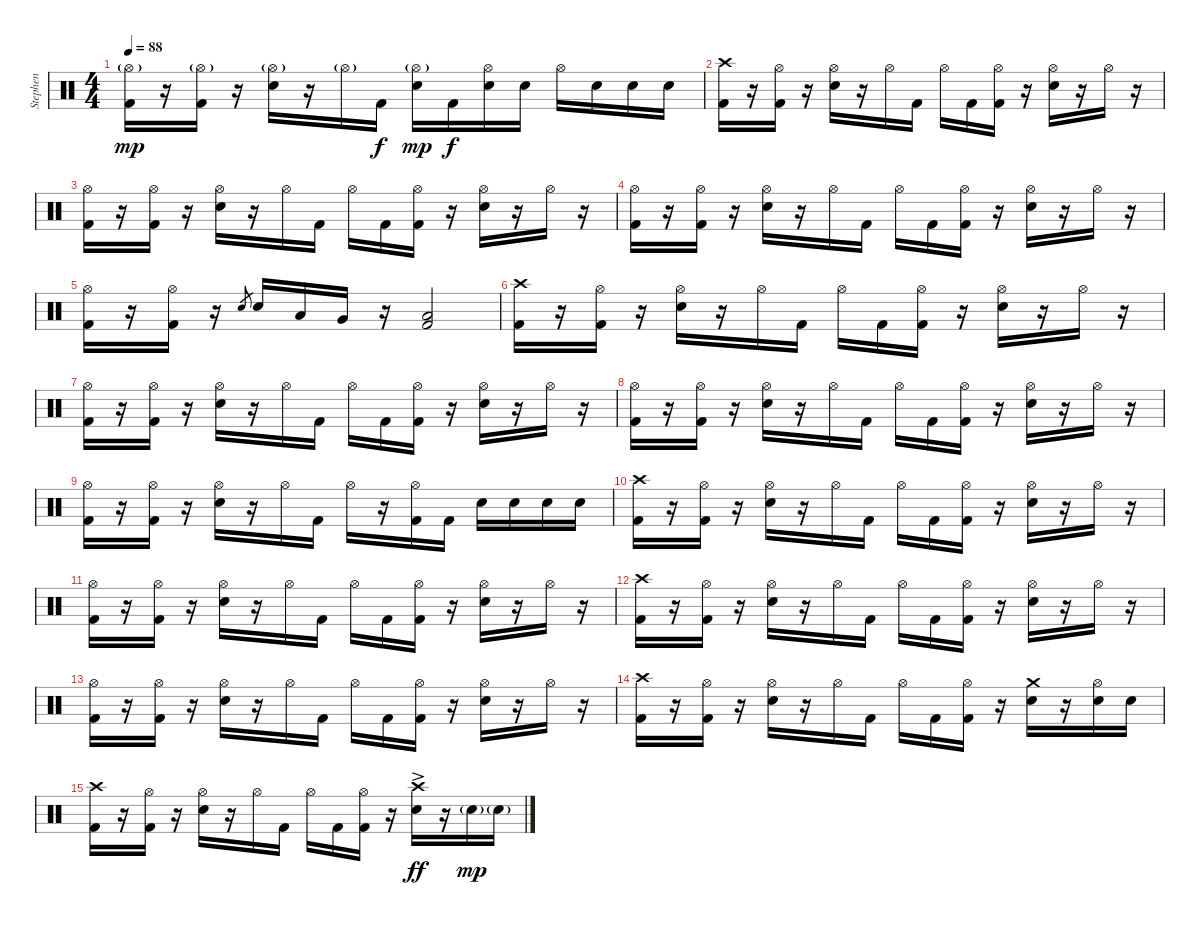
\track ("Stephen" "Stephen") {instrument percussion}
\staff {score}
\articulation defaults
\ts (4 4)
\tempo 88
\clef neutral
\ks c
("Hi-Hat (open)"{g} "Kick (hit) 2").16{dy mp} r.16 ("Hi-Hat (open)"{g} "Kick (hit) 2").16 r.16 ("Hi-Hat (open)"{g} "Electric Snare (hit)").16 r.16 "Hi-Hat (open)"{g}.16 "Kick (hit) 2".16{dy f} ("Hi-Hat (open)"{g} "Electric Snare (hit)").16{dy mp} "Kick (hit) 2".16{dy f} ("Hi-Hat (open)" "Electric Snare (hit)").16 "Electric Snare (hit)".16 "Hi-Hat (open)".16 "Electric Snare (hit)".16 "Electric Snare (hit)".16 "Electric Snare (hit)".16 |
("Crash high (hit)" "Kick (hit) 2").16 r.16 ("Hi-Hat (open)" "Kick (hit) 2").16 r.16 ("Hi-Hat (open)" "Electric Snare (hit)").16 r.16 "Hi-Hat (open)".16 "Kick (hit) 2".16 "Hi-Hat (open)".16 "Kick (hit) 2".16 ("Hi-Hat (open)" "Kick (hit) 2").16 r.16 ("Hi-Hat (open)" "Electric Snare (hit)").16 r.16 "Hi-Hat (open)".16 r.16 |
("Hi-Hat (open)" "Kick (hit) 2").16 r.16 ("Hi-Hat (open)" "Kick (hit) 2").16 r.16 ("Hi-Hat (open)" "Electric Snare (hit)").16 r.16 "Hi-Hat (open)".16 "Kick (hit) 2".16 "Hi-Hat (open)".16 "Kick (hit) 2".16 ("Hi-Hat (open)" "Kick (hit) 2").16 r.16 ("Hi-Hat (open)" "Electric Snare (hit)").16 r.16 "Hi-Hat (open)".16 r.16 |
("Hi-Hat (open)" "Kick (hit) 2").16 r.16 ("Hi-Hat (open)" "Kick (hit) 2").16 r.16 ("Hi-Hat (open)" "Electric Snare (hit)").16 r.16 "Hi-Hat (open)".16 "Kick (hit) 2".16 "Hi-Hat (open)".16 "Kick (hit) 2".16 ("Hi-Hat (open)" "Kick (hit) 2").16 r.16 ("Hi-Hat (open)" "Electric Snare (hit)").16 r.16 "Hi-Hat (open)".16 r.16 |
("Hi-Hat (open)" "Kick (hit) 2").16 r.16 ("Hi-Hat (open)" "Kick (hit) 2").16 r.16 "Electric Snare (hit)".8{gr} "Electric Snare (hit)".16 "Low Tom (hit)".16 "Very Low Tom (hit)".16 r.16 ("Low Floor Tom (hit)" "Kick (hit) 2").2 |
("Crash high (hit)" "Kick (hit) 2").16 r.16 ("Hi-Hat (open)" "Kick (hit) 2").16 r.16 ("Hi-Hat (open)" "Electric Snare (hit)").16 r.16 "Hi-Hat (open)".16 "Kick (hit) 2".16 "Hi-Hat (open)".16 "Kick (hit) 2".16 ("Hi-Hat (open)" "Kick (hit) 2").16 r.16 ("Hi-Hat (open)" "Electric Snare (hit)").16 r.16 "Hi-Hat (open)".16 r.16 |
("Hi-Hat (open)" "Kick (hit) 2").16 r.16 ("Hi-Hat (open)" "Kick (hit) 2").16 r.16 ("Hi-Hat (open)" "Electric Snare (hit)").16 r.16 "Hi-Hat (open)".16 "Kick (hit) 2".16 "Hi-Hat (open)".16 "Kick (hit) 2".16 ("Hi-Hat (open)" "Kick (hit) 2").16 r.16 ("Hi-Hat (open)" "Electric Snare (hit)").16 r.16 "Hi-Hat (open)".16 r.16 |
("Hi-Hat (open)" "Kick (hit) 2").16 r.16 ("Hi-Hat (open)" "Kick (hit) 2").16 r.16 ("Hi-Hat (open)" "Electric Snare (hit)").16 r.16 "Hi-Hat (open)".16 "Kick (hit) 2".16 "Hi-Hat (open)".16 "Kick (hit) 2".16 ("Hi-Hat (open)" "Kick (hit) 2").16 r.16 ("Hi-Hat (open)" "Electric Snare (hit)").16 r.16 "Hi-Hat (open)".16 r.16 |
("Hi-Hat (open)" "Kick (hit) 2").16 r.16 ("Hi-Hat (open)" "Kick (hit) 2").16 r.16 ("Hi-Hat (open)" "Electric Snare (hit)").16 r.16 "Hi-Hat (open)".16 "Kick (hit) 2".16 "Hi-Hat (open)".16 r.16 ("Hi-Hat (open)" "Kick (hit) 2").16 "Kick (hit) 2".16 "Electric Snare (hit)".16 "Electric Snare (hit)".16 "Electric Snare (hit)".16 "Electric Snare (hit)".16 |
("Crash high (hit)" "Kick (hit) 2").16 r.16 ("Hi-Hat (open)" "Kick (hit) 2").16 r.16 ("Hi-Hat (open)" "Electric Snare (hit)").16 r.16 "Hi-Hat (open)".16 "Kick (hit) 2".16 "Hi-Hat (open)".16 "Kick (hit) 2".16 ("Hi-Hat (open)" "Kick (hit) 2").16 r.16 ("Hi-Hat (open)" "Electric Snare (hit)").16 r.16 "Hi-Hat (open)".16 r.16 |
("Hi-Hat (open)" "Kick (hit) 2").16 r.16 ("Hi-Hat (open)" "Kick (hit) 2").16 r.16 ("Hi-Hat (open)" "Electric Snare (hit)").16 r.16 "Hi-Hat (open)".16 "Kick (hit) 2".16 "Hi-Hat (open)".16 "Kick (hit) 2".16 ("Hi-Hat (open)" "Kick (hit) 2").16 r.16 ("Hi-Hat (open)" "Electric Snare (hit)").16 r.16 "Hi-Hat (open)".16 r.16 |
("Crash high (hit)" "Kick (hit) 2").16 r.16 ("Hi-Hat (open)" "Kick (hit) 2").16 r.16 ("Hi-Hat (open)" "Electric Snare (hit)").16 r.16 "Hi-Hat (open)".16 "Kick (hit) 2".16 "Hi-Hat (open)".16 "Kick (hit) 2".16 ("Hi-Hat (open)" "Kick (hit) 2").16 r.16 ("Hi-Hat (open)" "Electric Snare (hit)").16 r.16 "Hi-Hat (open)".16 r.16 |
("Hi-Hat (open)" "Kick (hit) 2").16 r.16 ("Hi-Hat (open)" "Kick (hit) 2").16 r.16 ("Hi-Hat (open)" "Electric Snare (hit)").16 r.16 "Hi-Hat (open)".16 "Kick (hit) 2".16 "Hi-Hat (open)".16 "Kick (hit) 2".16 ("Hi-Hat (open)" "Kick (hit) 2").16 r.16 ("Hi-Hat (open)" "Electric Snare (hit)").16 r.16 "Hi-Hat (open)".16 r.16 |
("Crash high (hit)" "Kick (hit) 2").16 r.16 ("Hi-Hat (open)" "Kick (hit) 2").16 r.16 ("Hi-Hat (open)" "Electric Snare (hit)").16 r.16 "Hi-Hat (open)".16 "Kick (hit) 2".16 "Hi-Hat (open)".16 "Kick (hit) 2".16 ("Hi-Hat (open)" "Kick (hit) 2").16 r.16 ("Crash medium (hit)" "Electric Snare (hit)").16 r.16 ("Hi-Hat (open)" "Electric Snare (hit)").16 "Electric Snare (hit)".16 |
("Crash high (hit)" "Kick (hit) 2").16 r.16 ("Hi-Hat (open)" "Kick (hit) 2").16 r.16 ("Hi-Hat (open)" "Electric Snare (hit)").16 r.16 "Hi-Hat (open)".16 "Kick (hit) 2".16 "Hi-Hat (open)".16 "Kick (hit) 2".16 ("Hi-Hat (open)" "Kick (hit) 2").16 r.16 ("Crash high (hit)"{ac} "Electric Snare (hit)").16{dy ff} r.16 "Electric Snare (hit)"{g}.16{dy mp} "Electric Snare (hit)"{g}.16
